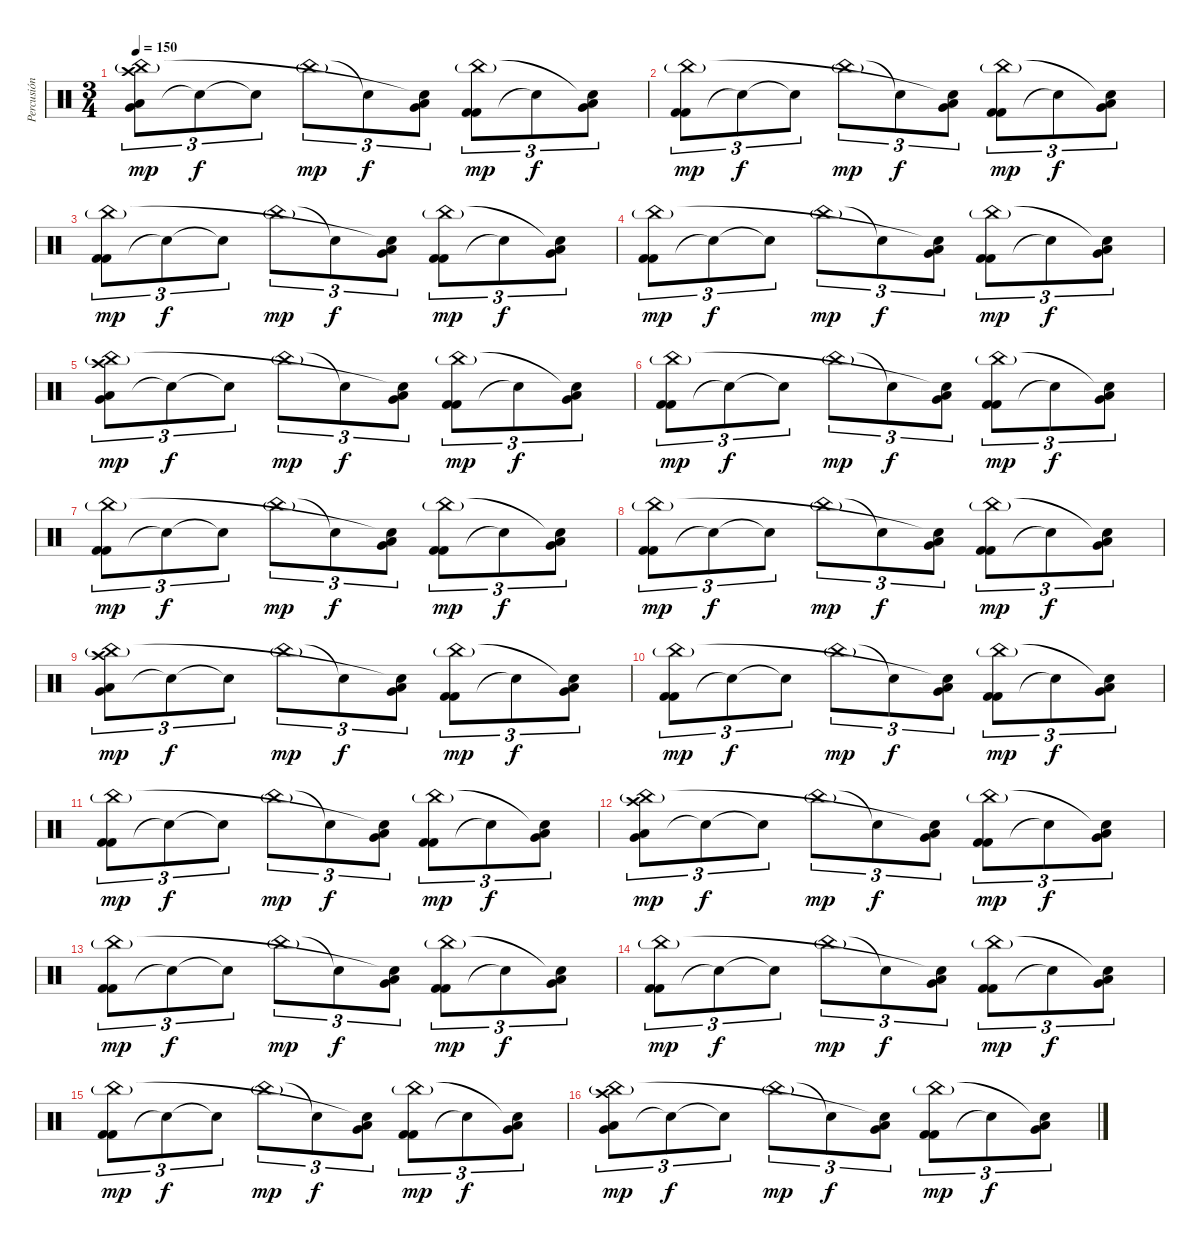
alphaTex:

\track ("Percusión" "Percusión") {instrument percussion}
\staff {score}
\articulation defaults
\ts (3 4)
\tempo 150
\clef neutral
\ks c
("Low Floor Tom (hit)" "Very Low Tom (hit)" "China (hit)"{g} "Crash high (hit)").8{tu (3 2) dy mp} "Snare (hit)"{t}.8{tu (3 2) dy f} "Snare (hit)"{t}.8{tu (3 2)} "China (hit)"{g}.8{tu (3 2) dy mp} "Snare (hit)"{t}.8{tu (3 2) dy f} ("Low Floor Tom (hit)" "Very Low Tom (hit)" "Snare (hit)"{t}).8{tu (3 2)} ("Kick (hit) 2" "Kick (hit) 2" "China (hit)"{g}).8{tu (3 2) dy mp} "Snare (hit)"{t}.8{tu (3 2) dy f} ("Low Floor Tom (hit)" "Very Low Tom (hit)" "Snare (hit)"{t}).8{tu (3 2)} |
("Kick (hit) 2" "Kick (hit) 2" "China (hit)"{g}).8{tu (3 2) dy mp} "Snare (hit)"{t}.8{tu (3 2) dy f} "Snare (hit)"{t}.8{tu (3 2)} "China (hit)"{g}.8{tu (3 2) dy mp} "Snare (hit)"{t}.8{tu (3 2) dy f} ("Low Floor Tom (hit)" "Very Low Tom (hit)" "Snare (hit)"{t}).8{tu (3 2)} ("Kick (hit) 2" "Kick (hit) 2" "China (hit)"{g}).8{tu (3 2) dy mp} "Snare (hit)"{t}.8{tu (3 2) dy f} ("Low Floor Tom (hit)" "Very Low Tom (hit)" "Snare (hit)"{t}).8{tu (3 2)} |
("Kick (hit) 2" "Kick (hit) 2" "China (hit)"{g}).8{tu (3 2) dy mp} "Snare (hit)"{t}.8{tu (3 2) dy f} "Snare (hit)"{t}.8{tu (3 2)} "China (hit)"{g}.8{tu (3 2) dy mp} "Snare (hit)"{t}.8{tu (3 2) dy f} ("Low Floor Tom (hit)" "Very Low Tom (hit)" "Snare (hit)"{t}).8{tu (3 2)} ("Kick (hit) 2" "Kick (hit) 2" "China (hit)"{g}).8{tu (3 2) dy mp} "Snare (hit)"{t}.8{tu (3 2) dy f} ("Low Floor Tom (hit)" "Very Low Tom (hit)" "Snare (hit)"{t}).8{tu (3 2)} |
("Kick (hit) 2" "Kick (hit) 2" "China (hit)"{g}).8{tu (3 2) dy mp} "Snare (hit)"{t}.8{tu (3 2) dy f} "Snare (hit)"{t}.8{tu (3 2)} "China (hit)"{g}.8{tu (3 2) dy mp} "Snare (hit)"{t}.8{tu (3 2) dy f} ("Low Floor Tom (hit)" "Very Low Tom (hit)" "Snare (hit)"{t}).8{tu (3 2)} ("Kick (hit) 2" "Kick (hit) 2" "China (hit)"{g}).8{tu (3 2) dy mp} "Snare (hit)"{t}.8{tu (3 2) dy f} ("Low Floor Tom (hit)" "Very Low Tom (hit)" "Snare (hit)"{t}).8{tu (3 2)} |
("Low Floor Tom (hit)" "Very Low Tom (hit)" "China (hit)"{g} "Crash high (hit)").8{tu (3 2) dy mp} "Snare (hit)"{t}.8{tu (3 2) dy f} "Snare (hit)"{t}.8{tu (3 2)} "China (hit)"{g}.8{tu (3 2) dy mp} "Snare (hit)"{t}.8{tu (3 2) dy f} ("Low Floor Tom (hit)" "Very Low Tom (hit)" "Snare (hit)"{t}).8{tu (3 2)} ("Kick (hit) 2" "Kick (hit) 2" "China (hit)"{g}).8{tu (3 2) dy mp} "Snare (hit)"{t}.8{tu (3 2) dy f} ("Low Floor Tom (hit)" "Very Low Tom (hit)" "Snare (hit)"{t}).8{tu (3 2)} |
("Kick (hit) 2" "Kick (hit) 2" "China (hit)"{g}).8{tu (3 2) dy mp} "Snare (hit)"{t}.8{tu (3 2) dy f} "Snare (hit)"{t}.8{tu (3 2)} "China (hit)"{g}.8{tu (3 2) dy mp} "Snare (hit)"{t}.8{tu (3 2) dy f} ("Low Floor Tom (hit)" "Very Low Tom (hit)" "Snare (hit)"{t}).8{tu (3 2)} ("Kick (hit) 2" "Kick (hit) 2" "China (hit)"{g}).8{tu (3 2) dy mp} "Snare (hit)"{t}.8{tu (3 2) dy f} ("Low Floor Tom (hit)" "Very Low Tom (hit)" "Snare (hit)"{t}).8{tu (3 2)} |
("Kick (hit) 2" "Kick (hit) 2" "China (hit)"{g}).8{tu (3 2) dy mp} "Snare (hit)"{t}.8{tu (3 2) dy f} "Snare (hit)"{t}.8{tu (3 2)} "China (hit)"{g}.8{tu (3 2) dy mp} "Snare (hit)"{t}.8{tu (3 2) dy f} ("Low Floor Tom (hit)" "Very Low Tom (hit)" "Snare (hit)"{t}).8{tu (3 2)} ("Kick (hit) 2" "Kick (hit) 2" "China (hit)"{g}).8{tu (3 2) dy mp} "Snare (hit)"{t}.8{tu (3 2) dy f} ("Low Floor Tom (hit)" "Very Low Tom (hit)" "Snare (hit)"{t}).8{tu (3 2)} |
("Kick (hit) 2" "Kick (hit) 2" "China (hit)"{g}).8{tu (3 2) dy mp} "Snare (hit)"{t}.8{tu (3 2) dy f} "Snare (hit)"{t}.8{tu (3 2)} "China (hit)"{g}.8{tu (3 2) dy mp} "Snare (hit)"{t}.8{tu (3 2) dy f} ("Low Floor Tom (hit)" "Very Low Tom (hit)" "Snare (hit)"{t}).8{tu (3 2)} ("Kick (hit) 2" "Kick (hit) 2" "China (hit)"{g}).8{tu (3 2) dy mp} "Snare (hit)"{t}.8{tu (3 2) dy f} ("Low Floor Tom (hit)" "Very Low Tom (hit)" "Snare (hit)"{t}).8{tu (3 2)} |
("Low Floor Tom (hit)" "Very Low Tom (hit)" "China (hit)"{g} "Crash high (hit)").8{tu (3 2) dy mp} "Snare (hit)"{t}.8{tu (3 2) dy f} "Snare (hit)"{t}.8{tu (3 2)} "China (hit)"{g}.8{tu (3 2) dy mp} "Snare (hit)"{t}.8{tu (3 2) dy f} ("Low Floor Tom (hit)" "Very Low Tom (hit)" "Snare (hit)"{t}).8{tu (3 2)} ("Kick (hit) 2" "Kick (hit) 2" "China (hit)"{g}).8{tu (3 2) dy mp} "Snare (hit)"{t}.8{tu (3 2) dy f} ("Low Floor Tom (hit)" "Very Low Tom (hit)" "Snare (hit)"{t}).8{tu (3 2)} |
("Kick (hit) 2" "Kick (hit) 2" "China (hit)"{g}).8{tu (3 2) dy mp} "Snare (hit)"{t}.8{tu (3 2) dy f} "Snare (hit)"{t}.8{tu (3 2)} "China (hit)"{g}.8{tu (3 2) dy mp} "Snare (hit)"{t}.8{tu (3 2) dy f} ("Low Floor Tom (hit)" "Very Low Tom (hit)" "Snare (hit)"{t}).8{tu (3 2)} ("Kick (hit) 2" "Kick (hit) 2" "China (hit)"{g}).8{tu (3 2) dy mp} "Snare (hit)"{t}.8{tu (3 2) dy f} ("Low Floor Tom (hit)" "Very Low Tom (hit)" "Snare (hit)"{t}).8{tu (3 2)} |
("Kick (hit) 2" "Kick (hit) 2" "China (hit)"{g}).8{tu (3 2) dy mp} "Snare (hit)"{t}.8{tu (3 2) dy f} "Snare (hit)"{t}.8{tu (3 2)} "China (hit)"{g}.8{tu (3 2) dy mp} "Snare (hit)"{t}.8{tu (3 2) dy f} ("Low Floor Tom (hit)" "Very Low Tom (hit)" "Snare (hit)"{t}).8{tu (3 2)} ("Kick (hit) 2" "Kick (hit) 2" "China (hit)"{g}).8{tu (3 2) dy mp} "Snare (hit)"{t}.8{tu (3 2) dy f} ("Low Floor Tom (hit)" "Very Low Tom (hit)" "Snare (hit)"{t}).8{tu (3 2)} |
("Low Floor Tom (hit)" "Very Low Tom (hit)" "China (hit)"{g} "Crash high (hit)").8{tu (3 2) dy mp} "Snare (hit)"{t}.8{tu (3 2) dy f} "Snare (hit)"{t}.8{tu (3 2)} "China (hit)"{g}.8{tu (3 2) dy mp} "Snare (hit)"{t}.8{tu (3 2) dy f} ("Low Floor Tom (hit)" "Very Low Tom (hit)" "Snare (hit)"{t}).8{tu (3 2)} ("Kick (hit) 2" "Kick (hit) 2" "China (hit)"{g}).8{tu (3 2) dy mp} "Snare (hit)"{t}.8{tu (3 2) dy f} ("Low Floor Tom (hit)" "Very Low Tom (hit)" "Snare (hit)"{t}).8{tu (3 2)} |
("Kick (hit) 2" "Kick (hit) 2" "China (hit)"{g}).8{tu (3 2) dy mp} "Snare (hit)"{t}.8{tu (3 2) dy f} "Snare (hit)"{t}.8{tu (3 2)} "China (hit)"{g}.8{tu (3 2) dy mp} "Snare (hit)"{t}.8{tu (3 2) dy f} ("Low Floor Tom (hit)" "Very Low Tom (hit)" "Snare (hit)"{t}).8{tu (3 2)} ("Kick (hit) 2" "Kick (hit) 2" "China (hit)"{g}).8{tu (3 2) dy mp} "Snare (hit)"{t}.8{tu (3 2) dy f} ("Low Floor Tom (hit)" "Very Low Tom (hit)" "Snare (hit)"{t}).8{tu (3 2)} |
("Kick (hit) 2" "Kick (hit) 2" "China (hit)"{g}).8{tu (3 2) dy mp} "Snare (hit)"{t}.8{tu (3 2) dy f} "Snare (hit)"{t}.8{tu (3 2)} "China (hit)"{g}.8{tu (3 2) dy mp} "Snare (hit)"{t}.8{tu (3 2) dy f} ("Low Floor Tom (hit)" "Very Low Tom (hit)" "Snare (hit)"{t}).8{tu (3 2)} ("Kick (hit) 2" "Kick (hit) 2" "China (hit)"{g}).8{tu (3 2) dy mp} "Snare (hit)"{t}.8{tu (3 2) dy f} ("Low Floor Tom (hit)" "Very Low Tom (hit)" "Snare (hit)"{t}).8{tu (3 2)} |
("Kick (hit) 2" "Kick (hit) 2" "China (hit)"{g}).8{tu (3 2) dy mp} "Snare (hit)"{t}.8{tu (3 2) dy f} "Snare (hit)"{t}.8{tu (3 2)} "China (hit)"{g}.8{tu (3 2) dy mp} "Snare (hit)"{t}.8{tu (3 2) dy f} ("Low Floor Tom (hit)" "Very Low Tom (hit)" "Snare (hit)"{t}).8{tu (3 2)} ("Kick (hit) 2" "Kick (hit) 2" "China (hit)"{g}).8{tu (3 2) dy mp} "Snare (hit)"{t}.8{tu (3 2) dy f} ("Low Floor Tom (hit)" "Very Low Tom (hit)" "Snare (hit)"{t}).8{tu (3 2)} |
("Low Floor Tom (hit)" "Very Low Tom (hit)" "China (hit)"{g} "Crash high (hit)").8{tu (3 2) dy mp} "Snare (hit)"{t}.8{tu (3 2) dy f} "Snare (hit)"{t}.8{tu (3 2)} "China (hit)"{g}.8{tu (3 2) dy mp} "Snare (hit)"{t}.8{tu (3 2) dy f} ("Low Floor Tom (hit)" "Very Low Tom (hit)" "Snare (hit)"{t}).8{tu (3 2)} ("Kick (hit) 2" "Kick (hit) 2" "China (hit)"{g}).8{tu (3 2) dy mp} "Snare (hit)"{t}.8{tu (3 2) dy f} ("Low Floor Tom (hit)" "Very Low Tom (hit)" "Snare (hit)"{t}).8{tu (3 2)}
